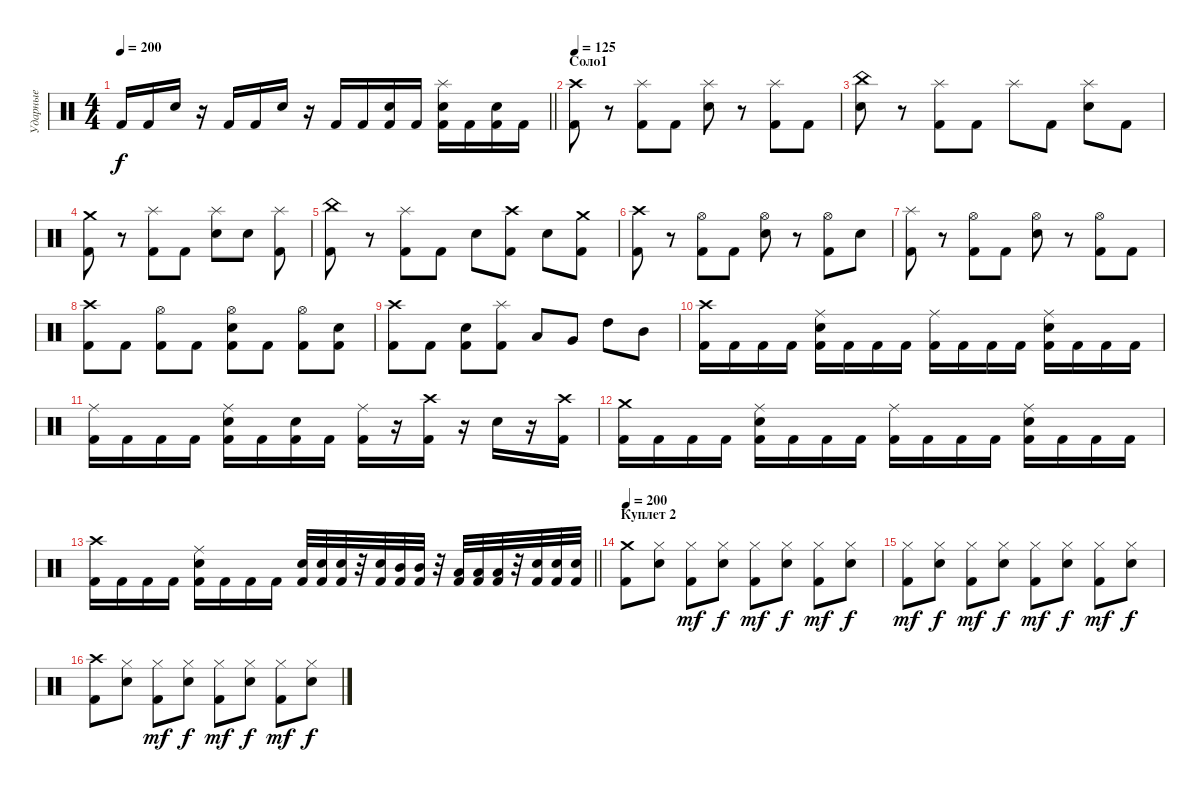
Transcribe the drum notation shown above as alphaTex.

\track ("Ударные" "Ударные") {instrument percussion}
\staff {score}
\articulation defaults
\ts (4 4)
\tempo 200
\clef neutral
\barLineRight lightlight
\ks c "Kick (hit) 2".16{dy f} "Kick (hit) 2".16 "Snare (hit) 2".16
r.16 "Kick (hit) 2".16 "Kick (hit) 2".16 "Snare (hit) 2".16 r.16 "Kick (hit) 2".16 "Kick (hit) 2".16 ("Snare (hit) 2" "Kick (hit) 2").16 "Kick (hit) 2".16 ("Splash (hit)" "Snare (hit) 2" "Kick (hit) 2").16 "Kick (hit) 2".16 ("Snare (hit) 2" "Kick (hit) 2").16 "Kick (hit) 2".16 |
\section ("" "Соло1")
\tempo 125
("Crash high (hit)" "Kick (hit) 2").8 r.8 ("Splash (hit)" "Kick (hit) 2").8 "Kick (hit) 2".8 ("Splash (hit)" "Snare (hit) 2").8 r.8 ("Splash (hit)" "Kick (hit) 2").8 "Kick (hit) 2".8 |
("China (hit)" "Snare (hit) 2").8 r.8 ("Splash (hit)" "Kick (hit) 2").8 "Kick (hit) 2".8 "Splash (hit)".8 "Kick (hit) 2".8 ("Splash (hit)" "Snare (hit) 2").8 "Kick (hit) 2".8 |
("Crash medium (hit)" "Kick (hit) 2").8 r.8 ("Splash (hit)" "Kick (hit) 2").8 "Kick (hit) 2".8 ("Splash (hit)" "Snare (hit) 2").8 "Snare (hit) 2".8 ("Splash (hit)" "Kick (hit) 2").8 |
("China (hit)" "Kick (hit) 2").8 r.8 ("Splash (hit)" "Kick (hit) 2").8 "Kick (hit) 2".8 "Snare (hit) 2".8 ("Crash high (hit)" "Kick (hit) 2").8 "Snare (hit) 2".8 ("Crash medium (hit)" "Kick (hit) 2").8 |
("Crash high (hit)" "Kick (hit) 2").8 r.8 ("Hi-Hat (open)" "Kick (hit) 2").8 "Kick (hit) 2".8 ("Hi-Hat (open)" "Snare (hit) 2").8 r.8 ("Hi-Hat (open)" "Kick (hit) 2").8 "Snare (hit) 2".8 |
("Splash (hit)" "Kick (hit) 2").8 r.8 ("Hi-Hat (open)" "Kick (hit) 2").8 "Kick (hit) 2".8 ("Hi-Hat (open)" "Snare (hit) 2").8 r.8 ("Hi-Hat (open)" "Kick (hit) 2").8 "Kick (hit) 2".8 |
("Crash high (hit)" "Kick (hit) 2").8 "Kick (hit) 2".8 ("Hi-Hat (open)" "Kick (hit) 2").8 "Kick (hit) 2".8 ("Hi-Hat (open)" "Snare (hit) 2" "Kick (hit) 2").8 "Kick (hit) 2".8 ("Hi-Hat (open)" "Kick (hit) 2").8 ("Snare (hit) 2" "Kick (hit) 2").8 |
("Crash high (hit)" "Kick (hit) 2").8 "Kick (hit) 2".8 ("Snare (hit) 2" "Kick (hit) 2").8 ("Splash (hit)" "Kick (hit) 2").8 "Low Tom (hit)".8 "Very Low Tom (hit)".8 "High Tom (hit)".8 "Mid Tom (hit)".8 |
("Crash high (hit)" "Kick (hit) 2").16 "Kick (hit) 2".16 "Kick (hit) 2".16 "Kick (hit) 2".16 ("Ride (middle)" "Snare (hit) 2" "Kick (hit) 2").16 "Kick (hit) 2".16 "Kick (hit) 2".16 "Kick (hit) 2".16 ("Ride (middle)" "Kick (hit) 2").16 "Kick (hit) 2".16 "Kick (hit) 2".16 "Kick (hit) 2".16 ("Ride (middle)" "Snare (hit) 2" "Kick (hit) 2").16 "Kick (hit) 2".16 "Kick (hit) 2".16 "Kick (hit) 2".16 |
("Ride (middle)" "Kick (hit) 2").16 "Kick (hit) 2".16 "Kick (hit) 2".16 "Kick (hit) 2".16 ("Ride (middle)" "Snare (hit) 2" "Kick (hit) 2").16 "Kick (hit) 2".16 ("Snare (hit) 2" "Kick (hit) 2").16 "Kick (hit) 2".16 ("Ride (middle)" "Kick (hit) 2").16 r.16 ("Crash high (hit)" "Kick (hit) 2").16 r.16 "Snare (hit) 2".16 r.16 ("Crash high (hit)" "Kick (hit) 2").16 |
("Crash medium (hit)" "Kick (hit) 2").16 "Kick (hit) 2".16 "Kick (hit) 2".16 "Kick (hit) 2".16 ("Ride (middle)" "Snare (hit) 2" "Kick (hit) 2").16 "Kick (hit) 2".16 "Kick (hit) 2".16 "Kick (hit) 2".16 ("Ride (middle)" "Kick (hit) 2").16 "Kick (hit) 2".16 "Kick (hit) 2".16 "Kick (hit) 2".16 ("Ride (middle)" "Snare (hit) 2" "Kick (hit) 2").16 "Kick (hit) 2".16 "Kick (hit) 2".16 "Kick (hit) 2".16 |
\barLineRight lightlight
("Crash high (hit)" "Kick (hit) 2").16 "Kick (hit) 2".16 "Kick (hit) 2".16 "Kick (hit) 2".16 ("Ride (middle)" "Snare (hit) 2" "Kick (hit) 2").16 "Kick (hit) 2".16 "Kick (hit) 2".16 "Kick (hit) 2".16 ("Snare (hit) 2" "Kick (hit) 2").32 ("Snare (hit) 2" "Kick (hit) 2").32 ("Snare (hit) 2" "Kick (hit) 2").32 r.32 ("Snare (hit) 2" "Kick (hit) 2").32 ("Mid Tom (hit)" "Kick (hit) 2").32 ("Mid Tom (hit)" "Kick (hit) 2").32 r.32 ("Low Tom (hit)" "Kick (hit) 2").32 ("Low Tom (hit)" "Kick (hit) 2").32 ("Low Tom (hit)" "Kick (hit) 2").32 r.32 ("Snare (hit) 2" "Kick (hit) 2").32 ("Snare (hit) 2" "Kick (hit) 2").32 ("Snare (hit) 2" "Kick (hit) 2").32 |
\section ("" "Куплет 2")
\tempo 200
("Crash medium (hit)" "Kick (hit) 2").8 ("Hi-Hat (closed)" "Snare (hit) 2").8 ("Hi-Hat (closed)" "Kick (hit) 2").8{dy mf} ("Hi-Hat (closed)" "Snare (hit) 2").8{dy f} ("Hi-Hat (closed)" "Kick (hit) 2").8{dy mf} ("Hi-Hat (closed)" "Snare (hit) 2").8{dy f} ("Hi-Hat (closed)" "Kick (hit) 2").8{dy mf} ("Hi-Hat (closed)" "Snare (hit) 2").8{dy f} |
("Hi-Hat (closed)" "Kick (hit) 2").8{dy mf} ("Hi-Hat (closed)" "Snare (hit) 2").8{dy f} ("Hi-Hat (closed)" "Kick (hit) 2").8{dy mf} ("Hi-Hat (closed)" "Snare (hit) 2").8{dy f} ("Hi-Hat (closed)" "Kick (hit) 2").8{dy mf} ("Hi-Hat (closed)" "Snare (hit) 2").8{dy f} ("Hi-Hat (closed)" "Kick (hit) 2").8{dy mf} ("Hi-Hat (closed)" "Snare (hit) 2").8{dy f} |
("Crash high (hit)" "Kick (hit) 2").8 ("Hi-Hat (closed)" "Snare (hit) 2").8 ("Hi-Hat (closed)" "Kick (hit) 2").8{dy mf} ("Hi-Hat (closed)" "Snare (hit) 2").8{dy f} ("Hi-Hat (closed)" "Kick (hit) 2").8{dy mf} ("Hi-Hat (closed)" "Snare (hit) 2").8{dy f} ("Hi-Hat (closed)" "Kick (hit) 2").8{dy mf} ("Hi-Hat (closed)" "Snare (hit) 2").8{dy f}
